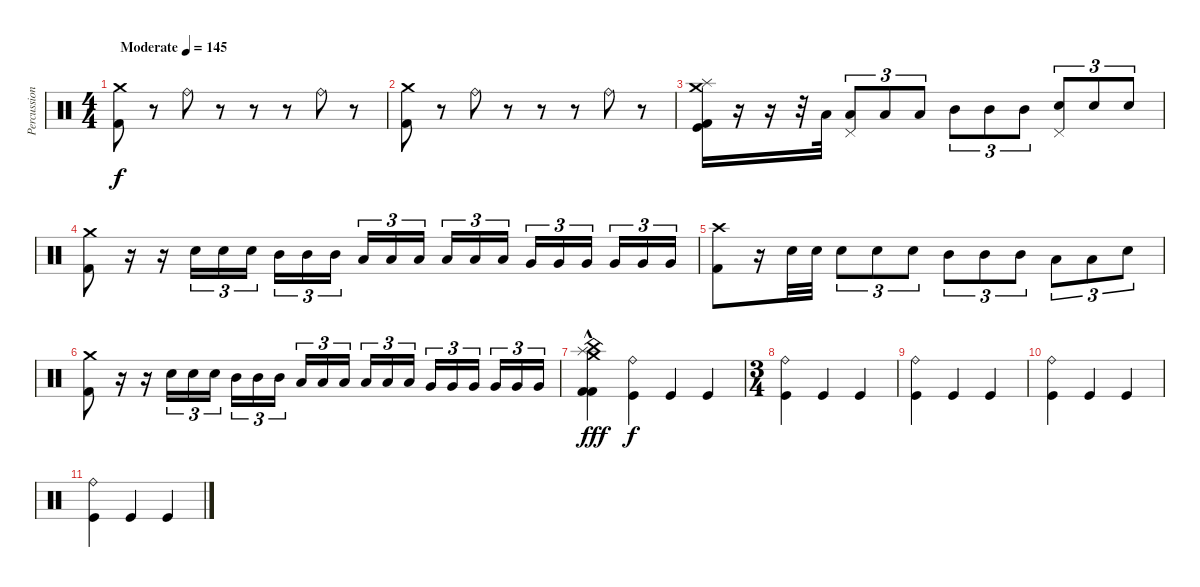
\track ("Percussion" "Percussion") {instrument percussion}
\staff {score}
\articulation defaults
\ts (4 4)
\tempo (145 "Moderate")
\tempo 130
\tempo (145 "Moderate")
\clef neutral
\ks c
("Crash medium (hit)" "Kick (hit) 2").8{dy f} r.8 "Ride (bell)".8 r.8 r.8 r.8 "Ride (bell)".8 r.8 |
("Crash medium (hit)" "Kick (hit) 2").8 r.8 "Ride (bell)".8 r.8 r.8 r.8 "Ride (bell)".8 r.8 |
("Crash medium (hit)" "Splash (hit)" "Kick (hit) 2" "Kick (hit)").16 r.16 r.16 r.32 "Low Tom (hit)".32 ("Pedal Hi-Hat (hit)" "Low Tom (hit)").8{tu (3 2)} "Low Tom (hit)".8{tu (3 2)} "Low Tom (hit)".8{tu (3 2)} "Mid Tom (hit)".8{tu (3 2)} "Mid Tom (hit)".8{tu (3 2)} "Mid Tom (hit)".8{tu (3 2)} ("Pedal Hi-Hat (hit)" "Electric Snare (hit)").8{tu (3 2)} "Electric Snare (hit)".8{tu (3 2)} "Electric Snare (hit)".8{tu (3 2)} |
("Crash medium (hit)" "Kick (hit) 2").8 r.16 r.16 "Electric Snare (hit)".16{tu (3 2)} "Electric Snare (hit)".16{tu (3 2)} "Electric Snare (hit)".16{tu (3 2) beam splitsecondary} "Mid Tom (hit)".16{tu (3 2)} "Mid Tom (hit)".16{tu (3 2)} "Mid Tom (hit)".16{tu (3 2)} "Low Tom (hit)".16{tu (3 2)} "Low Tom (hit)".16{tu (3 2)} "Low Tom (hit)".16{tu (3 2) beam splitsecondary} "Low Tom (hit)".16{tu (3 2)} "Low Tom (hit)".16{tu (3 2)} "Low Tom (hit)".16{tu (3 2)} "Very Low Tom (hit)".16{tu (3 2)} "Very Low Tom (hit)".16{tu (3 2)} "Very Low Tom (hit)".16{tu (3 2) beam splitsecondary} "Very Low Tom (hit)".16{tu (3 2)} "Very Low Tom (hit)".16{tu (3 2)} "Very Low Tom (hit)".16{tu (3 2)} |
("Crash high (hit)" "Kick (hit) 2").8 r.16 "Electric Snare (hit)".32 "Electric Snare (hit)".32 "Electric Snare (hit)".8{tu (3 2)} "Electric Snare (hit)".8{tu (3 2)} "Electric Snare (hit)".8{tu (3 2)} "Mid Tom (hit)".8{tu (3 2)} "Mid Tom (hit)".8{tu (3 2)} "Mid Tom (hit)".8{tu (3 2)} "Low Tom (hit)".8{tu (3 2)} "Low Tom (hit)".8{tu (3 2)} "Electric Snare (hit)".8{tu (3 2)} |
("Crash medium (hit)" "Kick (hit) 2").8 r.16 r.16 "Electric Snare (hit)".16{tu (3 2)} "Electric Snare (hit)".16{tu (3 2)} "Electric Snare (hit)".16{tu (3 2) beam splitsecondary} "Mid Tom (hit)".16{tu (3 2)} "Mid Tom (hit)".16{tu (3 2)} "Mid Tom (hit)".16{tu (3 2)} "Low Tom (hit)".16{tu (3 2)} "Low Tom (hit)".16{tu (3 2)} "Low Tom (hit)".16{tu (3 2) beam splitsecondary} "Low Tom (hit)".16{tu (3 2)} "Low Tom (hit)".16{tu (3 2)} "Low Tom (hit)".16{tu (3 2)} "Very Low Tom (hit)".16{tu (3 2)} "Very Low Tom (hit)".16{tu (3 2)} "Very Low Tom (hit)".16{tu (3 2) beam splitsecondary} "Very Low Tom (hit)".16{tu (3 2)} "Very Low Tom (hit)".16{tu (3 2)} "Very Low Tom (hit)".16{tu (3 2)} |
("Crash medium (hit)" "Splash (hit)" "China (hit)" "Kick (hit) 2"{hac} "Kick (hit) 2").4{dy fff} ("Ride (bell)" "Kick (hit)").4{dy f} "Kick (hit)".4 "Kick (hit)".4 |
\ts (3 4)
("Ride (bell)" "Kick (hit)").4 "Kick (hit)".4 "Kick (hit)".4 |
("Ride (bell)" "Kick (hit)").4 "Kick (hit)".4 "Kick (hit)".4 |
("Ride (bell)" "Kick (hit)").4 "Kick (hit)".4 "Kick (hit)".4 |
("Ride (bell)" "Kick (hit)").4 "Kick (hit)".4 "Kick (hit)".4
